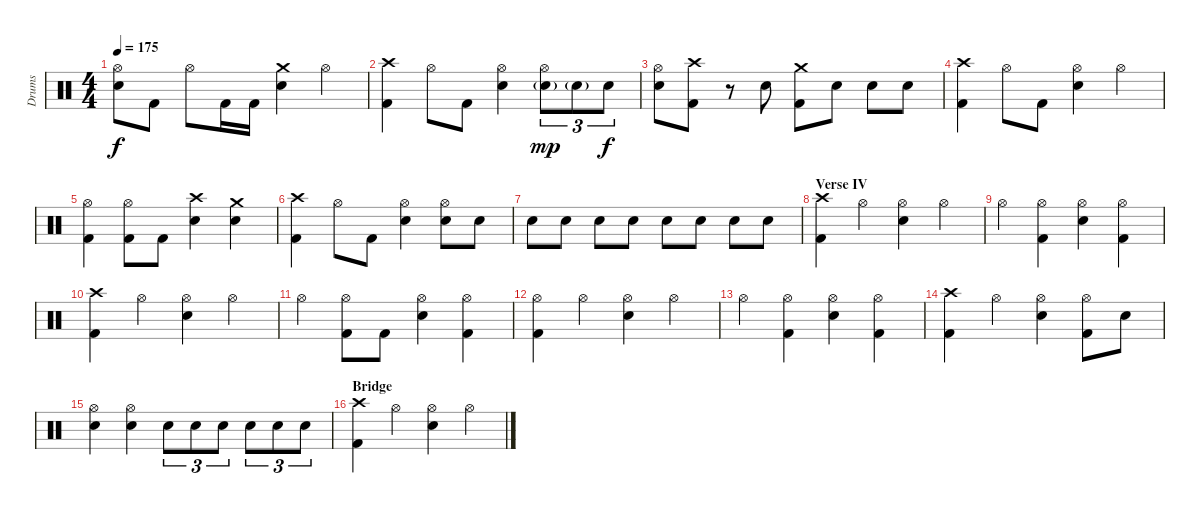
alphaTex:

\track ("Drums" "Drums") {instrument percussion}
\staff {score}
\articulation defaults
\ts (4 4)
\tempo 175
\clef neutral
\ks c
("Hi-Hat (open)" "Snare (hit) 2").8{dy f} "Kick (hit) 2".8 "Hi-Hat (open)".8 "Kick (hit) 2".16 "Kick (hit) 2".16 ("Crash medium (hit)" "Snare (hit) 2").4 "Hi-Hat (open)".4 |
("Crash high (hit)" "Kick (hit) 2").4 "Hi-Hat (open)".8 "Kick (hit) 2".8 ("Hi-Hat (open)" "Snare (hit) 2").4 ("Hi-Hat (open)" "Snare (hit) 2"{g}).8{tu (3 2) dy mp} "Snare (hit) 2"{g}.8{tu (3 2)} "Snare (hit) 2".8{tu (3 2) dy f} |
("Hi-Hat (open)" "Snare (hit) 2").8 ("Crash high (hit)" "Kick (hit) 2").8 r.8 "Snare (hit) 2".8 ("Crash medium (hit)" "Kick (hit) 2").8 "Snare (hit) 2".8 "Snare (hit) 2".8 "Snare (hit) 2".8 |
("Crash high (hit)" "Kick (hit) 2").4 "Hi-Hat (open)".8 "Kick (hit) 2".8 ("Hi-Hat (open)" "Snare (hit) 2").4 "Hi-Hat (open)".4 |
("Hi-Hat (open)" "Kick (hit) 2").4 ("Hi-Hat (open)" "Kick (hit) 2").8 "Kick (hit) 2".8 ("Crash high (hit)" "Snare (hit) 2").4 ("Crash medium (hit)" "Snare (hit) 2").4 |
("Crash high (hit)" "Kick (hit) 2").4 "Hi-Hat (open)".8 "Kick (hit) 2".8 ("Hi-Hat (open)" "Snare (hit) 2").4 ("Hi-Hat (open)" "Snare (hit) 2").8 "Snare (hit) 2".8 |
"Snare (hit) 2".8 "Snare (hit) 2".8 "Snare (hit) 2".8 "Snare (hit) 2".8 "Snare (hit) 2".8 "Snare (hit) 2".8 "Snare (hit) 2".8 "Snare (hit) 2".8 |
\section ("" "Verse IV")
("Crash high (hit)" "Kick (hit) 2").4 "Hi-Hat (open)".4 ("Hi-Hat (open)" "Snare (hit) 2").4 "Hi-Hat (open)".4 |
"Hi-Hat (open)".4 ("Hi-Hat (open)" "Kick (hit) 2").4 ("Hi-Hat (open)" "Snare (hit) 2").4 ("Hi-Hat (open)" "Kick (hit) 2").4 |
("Crash high (hit)" "Kick (hit) 2").4 "Hi-Hat (open)".4 ("Hi-Hat (open)" "Snare (hit) 2").4 "Hi-Hat (open)".4 |
"Hi-Hat (open)".4 ("Hi-Hat (open)" "Kick (hit) 2").8 "Kick (hit) 2".8 ("Hi-Hat (open)" "Snare (hit) 2").4 ("Hi-Hat (open)" "Kick (hit) 2").4 |
("Hi-Hat (open)" "Kick (hit) 2").4 "Hi-Hat (open)".4 ("Hi-Hat (open)" "Snare (hit) 2").4 "Hi-Hat (open)".4 |
"Hi-Hat (open)".4 ("Hi-Hat (open)" "Kick (hit) 2").4 ("Hi-Hat (open)" "Snare (hit) 2").4 ("Hi-Hat (open)" "Kick (hit) 2").4 |
("Crash high (hit)" "Kick (hit) 2").4 "Hi-Hat (open)".4 ("Hi-Hat (open)" "Snare (hit) 2").4 ("Hi-Hat (open)" "Kick (hit) 2").8 "Snare (hit) 2".8 |
("Hi-Hat (open)" "Snare (hit) 2").4 ("Hi-Hat (open)" "Snare (hit) 2").4 "Snare (hit) 2".8{tu (3 2)} "Snare (hit) 2".8{tu (3 2)} "Snare (hit) 2".8{tu (3 2)} "Snare (hit) 2".8{tu (3 2)} "Snare (hit) 2".8{tu (3 2)} "Snare (hit) 2".8{tu (3 2)} |
\section ("" "Bridge")
("Crash high (hit)" "Kick (hit) 2").4 "Hi-Hat (open)".4 ("Hi-Hat (open)" "Snare (hit) 2").4 "Hi-Hat (open)".4
